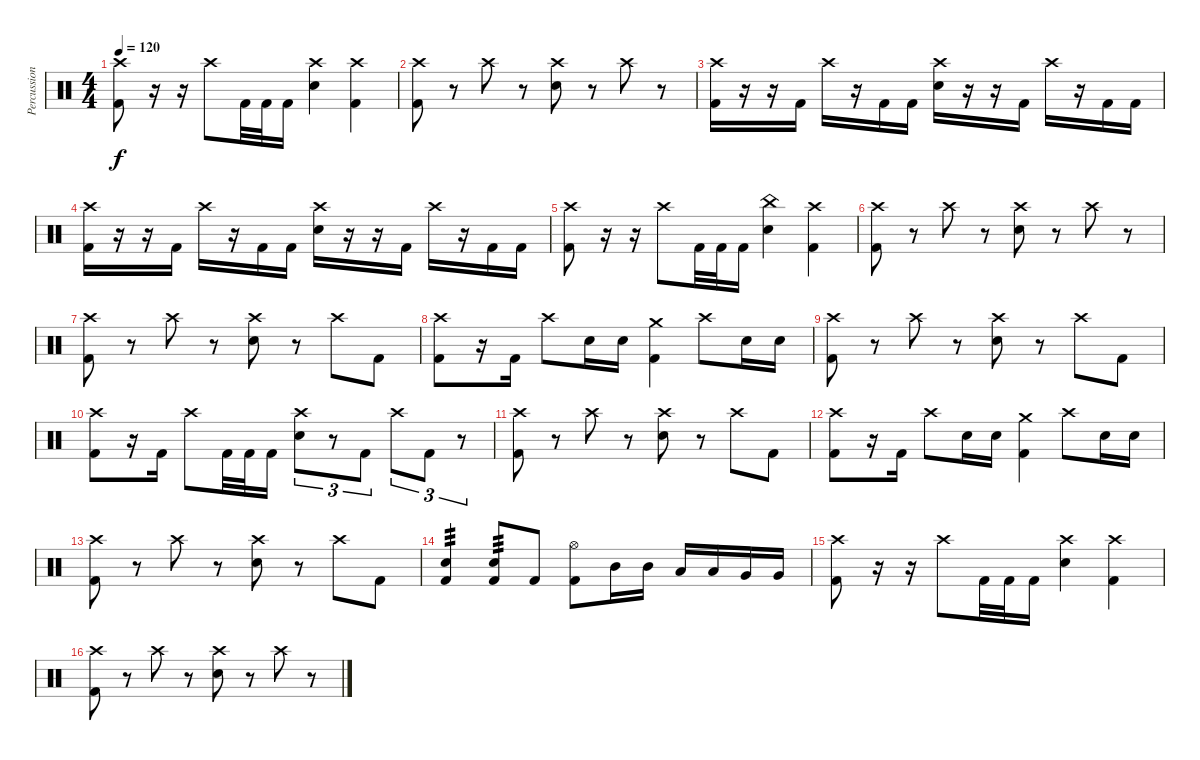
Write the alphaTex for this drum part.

\track ("Percussion" "Percussion") {instrument percussion}
\staff {score}
\articulation defaults
\ts (4 4)
\tempo 120
\clef neutral
\ks c
("Crash high (hit)" "Kick (hit) 2").8{dy f} r.16 r.16 "Crash high (hit)".8 "Kick (hit) 2".32 "Kick (hit) 2".32 "Kick (hit) 2".16 ("Crash high (hit)" "Snare (hit) 2").4 ("Crash high (hit)" "Kick (hit) 2").4 |
("Crash high (hit)" "Kick (hit) 2").8 r.8 "Crash high (hit)".8 r.8 ("Crash high (hit)" "Snare (hit) 2").8 r.8 "Crash high (hit)".8 r.8 |
("Crash high (hit)" "Kick (hit) 2").16 r.16 r.16 "Kick (hit) 2".16 "Crash high (hit)".16 r.16 "Kick (hit) 2".16 "Kick (hit) 2".16 ("Crash high (hit)" "Snare (hit) 2").16 r.16 r.16 "Kick (hit) 2".16 "Crash high (hit)".16 r.16 "Kick (hit) 2".16 "Kick (hit) 2".16 |
("Crash high (hit)" "Kick (hit) 2").16 r.16 r.16 "Kick (hit) 2".16 "Crash high (hit)".16 r.16 "Kick (hit) 2".16 "Kick (hit) 2".16 ("Crash high (hit)" "Snare (hit) 2").16 r.16 r.16 "Kick (hit) 2".16 "Crash high (hit)".16 r.16 "Kick (hit) 2".16 "Kick (hit) 2".16 |
("Crash high (hit)" "Kick (hit) 2").8 r.16 r.16 "Crash high (hit)".8 "Kick (hit) 2".32 "Kick (hit) 2".32 "Kick (hit) 2".16 ("China (hit)" "Snare (hit) 2").4 ("Crash high (hit)" "Kick (hit) 2").4 |
("Crash high (hit)" "Kick (hit) 2").8 r.8 "Crash high (hit)".8 r.8 ("Crash high (hit)" "Snare (hit) 2").8 r.8 "Crash high (hit)".8 r.8 |
("Crash high (hit)" "Kick (hit) 2").8 r.8 "Crash high (hit)".8 r.8 ("Crash high (hit)" "Snare (hit) 2").8 r.8 "Crash high (hit)".8 "Kick (hit) 2".8 |
("Crash high (hit)" "Kick (hit) 2").8 r.16 "Kick (hit) 2".16 "Crash high (hit)".8 "Snare (hit) 2".16 "Snare (hit) 2".16 ("Crash medium (hit)" "Kick (hit) 2").4 "Crash high (hit)".8 "Snare (hit) 2".16 "Snare (hit) 2".16 |
("Crash high (hit)" "Kick (hit) 2").8 r.8 "Crash high (hit)".8 r.8 ("Crash high (hit)" "Snare (hit) 2").8 r.8 "Crash high (hit)".8 "Kick (hit) 2".8 |
("Crash high (hit)" "Kick (hit) 2").8 r.16 "Kick (hit) 2".16 "Crash high (hit)".8 "Kick (hit) 2".32 "Kick (hit) 2".32 "Kick (hit) 2".16 ("Crash high (hit)" "Snare (hit) 2").8{tu (3 2)} r.8{tu (3 2)} "Kick (hit) 2".8{tu (3 2)} "Crash high (hit)".8{tu (3 2)} "Kick (hit) 2".8{tu (3 2)} r.8{tu (3 2)} |
("Crash high (hit)" "Kick (hit) 2").8 r.8 "Crash high (hit)".8 r.8 ("Crash high (hit)" "Snare (hit) 2").8 r.8 "Crash high (hit)".8 "Kick (hit) 2".8 |
("Crash high (hit)" "Kick (hit) 2").8 r.16 "Kick (hit) 2".16 "Crash high (hit)".8 "Snare (hit) 2".16 "Snare (hit) 2".16 ("Crash medium (hit)" "Kick (hit) 2").4 "Crash high (hit)".8 "Snare (hit) 2".16 "Snare (hit) 2".16 |
("Crash high (hit)" "Kick (hit) 2").8 r.8 "Crash high (hit)".8 r.8 ("Crash high (hit)" "Snare (hit) 2").8 r.8 "Crash high (hit)".8 "Kick (hit) 2".8 |
("Snare (hit) 2" "Kick (hit) 2").4{tp 3} ("Snare (hit) 2" "Kick (hit) 2").8{tp 3} "Kick (hit) 2".8 ("Hi-Hat (open)" "Kick (hit) 2").8 "Mid Tom (hit)".16 "Mid Tom (hit)".16 "Low Tom (hit)".16 "Low Tom (hit)".16 "Very Low Tom (hit)".16 "Very Low Tom (hit)".16 |
("Crash high (hit)" "Kick (hit) 2").8 r.16 r.16 "Crash high (hit)".8 "Kick (hit) 2".32 "Kick (hit) 2".32 "Kick (hit) 2".16 ("Crash high (hit)" "Snare (hit) 2").4 ("Crash high (hit)" "Kick (hit) 2").4 |
("Crash high (hit)" "Kick (hit) 2").8 r.8 "Crash high (hit)".8 r.8 ("Crash high (hit)" "Snare (hit) 2").8 r.8 "Crash high (hit)".8 r.8
